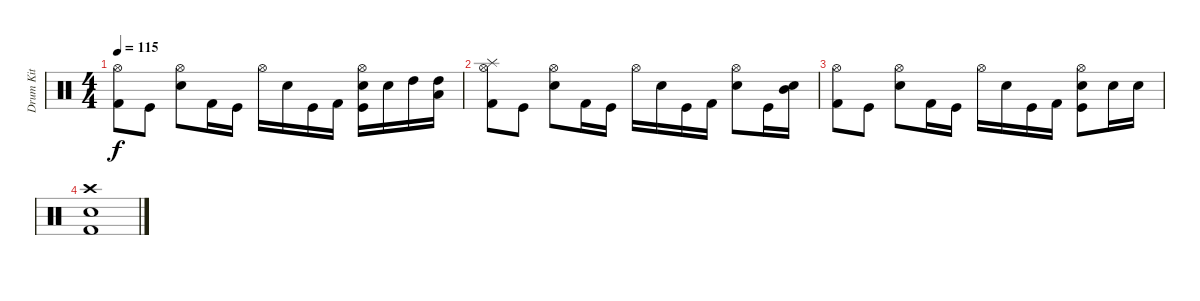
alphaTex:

\track ("Drum Kit " "Drum Kit ") {instrument percussion}
\staff {score}
\articulation defaults
\ts (4 4)
\tempo 115
\clef neutral
\ks c
("Hi-Hat (open)" "Kick (hit) 2").8{dy f} "Kick (hit)".8 ("Hi-Hat (open)" "Electric Snare (hit)").8 "Kick (hit) 2".16 "Kick (hit)".16 "Hi-Hat (open)".16 "Electric Snare (hit)".16 "Kick (hit)".16 "Kick (hit) 2".16 ("Hi-Hat (open)" "Snare (hit) 2" "Kick (hit)").16 "Electric Snare (hit)".16 "High Tom (hit)".16 ("High Tom (hit)" "Low Tom (hit)").16 |
("Splash (hit)" "Hi-Hat (open)" "Kick (hit) 2").8 "Kick (hit)".8 ("Hi-Hat (open)" "Electric Snare (hit)").8 "Kick (hit) 2".16 "Kick (hit)".16 "Hi-Hat (open)".16 "Electric Snare (hit)".16 "Kick (hit)".16 "Kick (hit) 2".16 ("Hi-Hat (open)" "Snare (hit) 2").8 "Kick (hit)".16 ("Mid Tom (hit)" "Electric Snare (hit)").16 |
("Hi-Hat (open)" "Kick (hit) 2").8 "Kick (hit)".8 ("Hi-Hat (open)" "Electric Snare (hit)").8 "Kick (hit) 2".16 "Kick (hit)".16 "Hi-Hat (open)".16 "Electric Snare (hit)".16 "Kick (hit)".16 "Kick (hit) 2".16 ("Hi-Hat (open)" "Snare (hit) 2" "Kick (hit)").8 "Electric Snare (hit)".16 "Electric Snare (hit)".16 |
("Crash high (hit)" "Snare (hit) 2" "Kick (hit) 2").1
